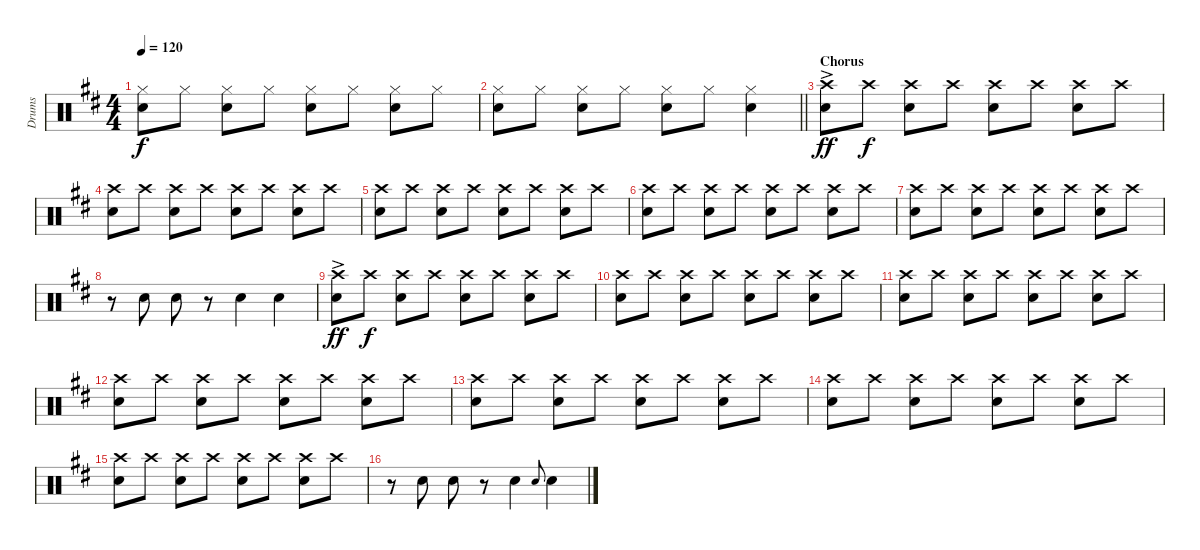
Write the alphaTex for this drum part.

\track ("Drums" "Drums") {instrument percussion}
\staff {score}
\articulation defaults
\ts (4 4)
\tempo 120
\clef neutral
\ks d
("Hi-Hat (closed)" "Snare (hit) 2").8{dy f} "Hi-Hat (closed)".8 ("Hi-Hat (closed)" "Snare (hit) 2").8 "Hi-Hat (closed)".8 ("Hi-Hat (closed)" "Snare (hit) 2").8 "Hi-Hat (closed)".8 ("Hi-Hat (closed)" "Snare (hit) 2").8 "Hi-Hat (closed)".8 |
\barLineRight lightlight
("Hi-Hat (closed)" "Snare (hit) 2").8 "Hi-Hat (closed)".8 ("Hi-Hat (closed)" "Snare (hit) 2").8 "Hi-Hat (closed)".8 ("Hi-Hat (closed)" "Snare (hit) 2").8 "Hi-Hat (closed)".8 ("Hi-Hat (closed)" "Snare (hit) 2").4 |
\section ("" "Chorus")
("Crash high (hit)"{ac} "Snare (hit) 2").8{dy ff} "Crash high (hit)".8{dy f} ("Crash high (hit)" "Snare (hit) 2").8 "Crash high (hit)".8 ("Crash high (hit)" "Snare (hit) 2").8 "Crash high (hit)".8 ("Crash high (hit)" "Snare (hit) 2").8 "Crash high (hit)".8 |
("Crash high (hit)" "Snare (hit) 2").8 "Crash high (hit)".8 ("Crash high (hit)" "Snare (hit) 2").8 "Crash high (hit)".8 ("Crash high (hit)" "Snare (hit) 2").8 "Crash high (hit)".8 ("Crash high (hit)" "Snare (hit) 2").8 "Crash high (hit)".8 |
("Crash high (hit)" "Snare (hit) 2").8 "Crash high (hit)".8 ("Crash high (hit)" "Snare (hit) 2").8 "Crash high (hit)".8 ("Crash high (hit)" "Snare (hit) 2").8 "Crash high (hit)".8 ("Crash high (hit)" "Snare (hit) 2").8 "Crash high (hit)".8 |
("Crash high (hit)" "Snare (hit) 2").8 "Crash high (hit)".8 ("Crash high (hit)" "Snare (hit) 2").8 "Crash high (hit)".8 ("Crash high (hit)" "Snare (hit) 2").8 "Crash high (hit)".8 ("Crash high (hit)" "Snare (hit) 2").8 "Crash high (hit)".8 |
("Crash high (hit)" "Snare (hit) 2").8 "Crash high (hit)".8 ("Crash high (hit)" "Snare (hit) 2").8 "Crash high (hit)".8 ("Crash high (hit)" "Snare (hit) 2").8 "Crash high (hit)".8 ("Crash high (hit)" "Snare (hit) 2").8 "Crash high (hit)".8 |
r.8 "Snare (hit) 2".8 "Snare (hit) 2".8 r.8 "Snare (hit) 2".4 "Snare (hit) 2".4 |
("Crash high (hit)"{ac} "Snare (hit) 2").8{dy ff} "Crash high (hit)".8{dy f} ("Crash high (hit)" "Snare (hit) 2").8 "Crash high (hit)".8 ("Crash high (hit)" "Snare (hit) 2").8 "Crash high (hit)".8 ("Crash high (hit)" "Snare (hit) 2").8 "Crash high (hit)".8 |
("Crash high (hit)" "Snare (hit) 2").8 "Crash high (hit)".8 ("Crash high (hit)" "Snare (hit) 2").8 "Crash high (hit)".8 ("Crash high (hit)" "Snare (hit) 2").8 "Crash high (hit)".8 ("Crash high (hit)" "Snare (hit) 2").8 "Crash high (hit)".8 |
("Crash high (hit)" "Snare (hit) 2").8 "Crash high (hit)".8 ("Crash high (hit)" "Snare (hit) 2").8 "Crash high (hit)".8 ("Crash high (hit)" "Snare (hit) 2").8 "Crash high (hit)".8 ("Crash high (hit)" "Snare (hit) 2").8 "Crash high (hit)".8 |
("Crash high (hit)" "Snare (hit) 2").8 "Crash high (hit)".8 ("Crash high (hit)" "Snare (hit) 2").8 "Crash high (hit)".8 ("Crash high (hit)" "Snare (hit) 2").8 "Crash high (hit)".8 ("Crash high (hit)" "Snare (hit) 2").8 "Crash high (hit)".8 |
("Crash high (hit)" "Snare (hit) 2").8 "Crash high (hit)".8 ("Crash high (hit)" "Snare (hit) 2").8 "Crash high (hit)".8 ("Crash high (hit)" "Snare (hit) 2").8 "Crash high (hit)".8 ("Crash high (hit)" "Snare (hit) 2").8 "Crash high (hit)".8 |
("Crash high (hit)" "Snare (hit) 2").8 "Crash high (hit)".8 ("Crash high (hit)" "Snare (hit) 2").8 "Crash high (hit)".8 ("Crash high (hit)" "Snare (hit) 2").8 "Crash high (hit)".8 ("Crash high (hit)" "Snare (hit) 2").8 "Crash high (hit)".8 |
("Crash high (hit)" "Snare (hit) 2").8 "Crash high (hit)".8 ("Crash high (hit)" "Snare (hit) 2").8 "Crash high (hit)".8 ("Crash high (hit)" "Snare (hit) 2").8 "Crash high (hit)".8 ("Crash high (hit)" "Snare (hit) 2").8 "Crash high (hit)".8 |
r.8 "Snare (hit) 2".8 "Snare (hit) 2".8 r.8 "Snare (hit) 2".4 "Snare (hit) 2".8{gr onbeat} "Snare (hit) 2".4
